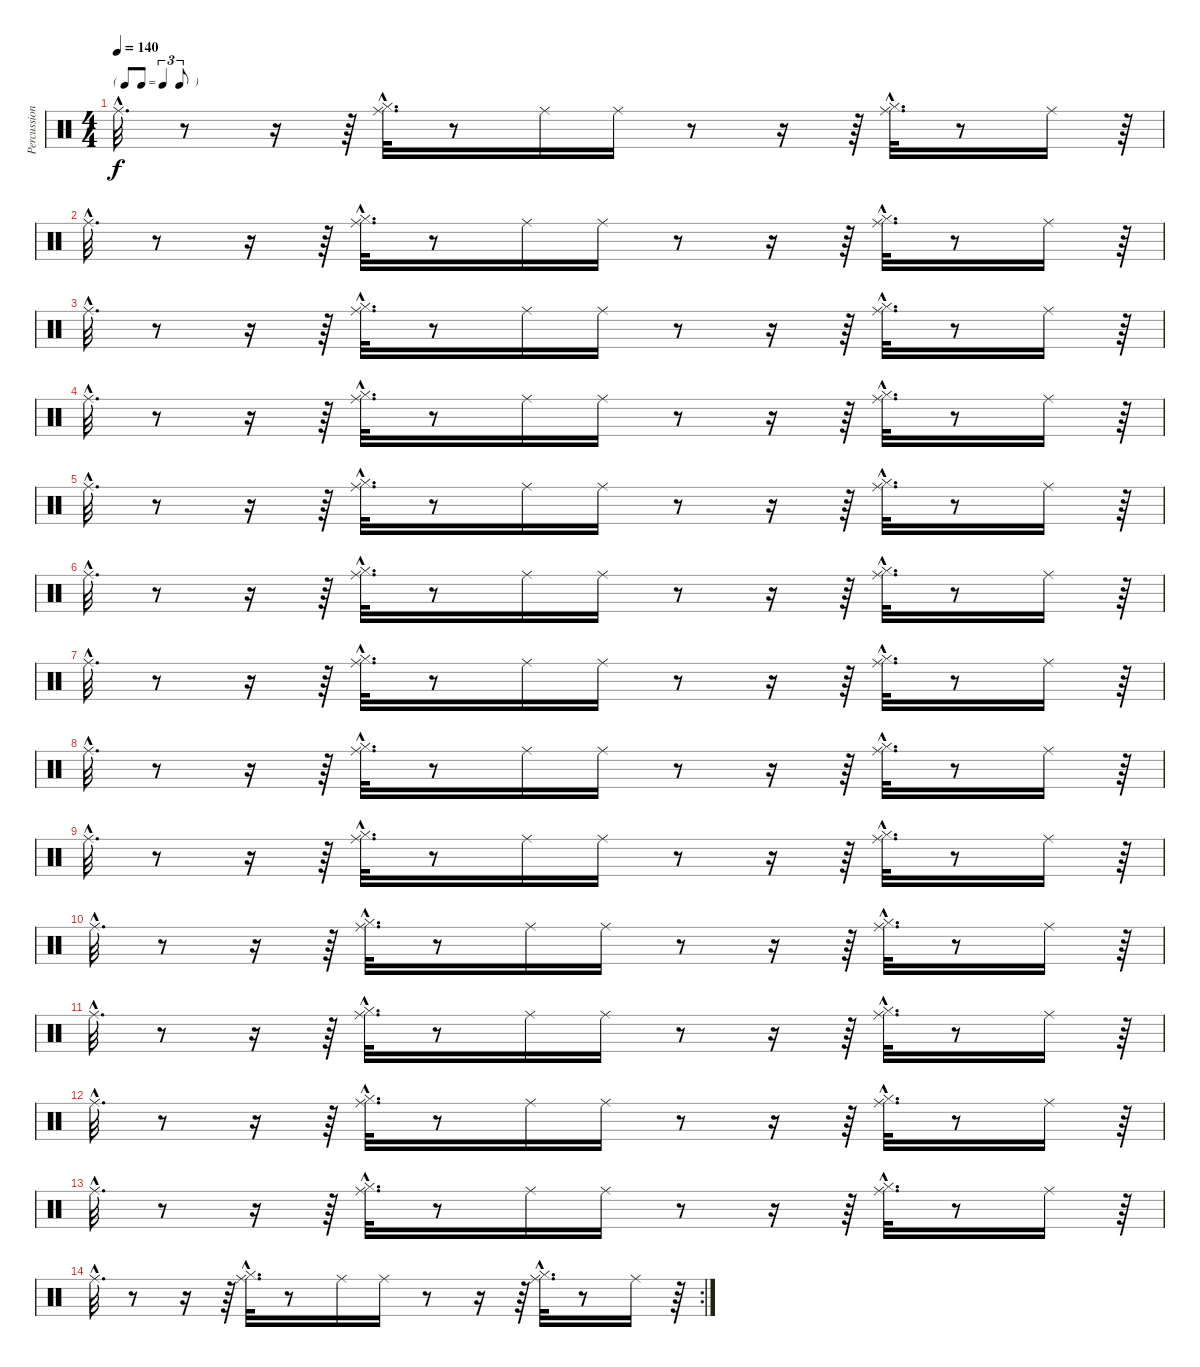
\track ("Percussions" "Percussion") {instrument percussion}
\staff {score}
\articulation defaults
\ts (4 4)
\tf triplet8th
\tempo 140
\clef neutral
\ks c "Ride (middle)"{hac}.32{d dy f}
r.8 r.16 r.64 ("Hi-Hat (closed)"{hac} "Ride (middle)"{hac}).32{d} r.8 "Ride (middle)".16 "Ride (middle)".16 r.8 r.16 r.64 ("Hi-Hat (closed)"{hac} "Ride (middle)"{hac}).32{d} r.8 "Ride (middle)".16 r.64 |
"Ride (middle)"{hac}.32{d} r.8 r.16 r.64 ("Hi-Hat (closed)"{hac} "Ride (middle)"{hac}).32{d} r.8 "Ride (middle)".16 "Ride (middle)".16 r.8 r.16 r.64 ("Hi-Hat (closed)"{hac} "Ride (middle)"{hac}).32{d} r.8 "Ride (middle)".16 r.64 |
"Ride (middle)"{hac}.32{d} r.8 r.16 r.64 ("Hi-Hat (closed)"{hac} "Ride (middle)"{hac}).32{d} r.8 "Ride (middle)".16 "Ride (middle)".16 r.8 r.16 r.64 ("Hi-Hat (closed)"{hac} "Ride (middle)"{hac}).32{d} r.8 "Ride (middle)".16 r.64 |
"Ride (middle)"{hac}.32{d} r.8 r.16 r.64 ("Hi-Hat (closed)"{hac} "Ride (middle)"{hac}).32{d} r.8 "Ride (middle)".16 "Ride (middle)".16 r.8 r.16 r.64 ("Hi-Hat (closed)"{hac} "Ride (middle)"{hac}).32{d} r.8 "Ride (middle)".16 r.64 |
"Ride (middle)"{hac}.32{d} r.8 r.16 r.64 ("Hi-Hat (closed)"{hac} "Ride (middle)"{hac}).32{d} r.8 "Ride (middle)".16 "Ride (middle)".16 r.8 r.16 r.64 ("Hi-Hat (closed)"{hac} "Ride (middle)"{hac}).32{d} r.8 "Ride (middle)".16 r.64 |
"Ride (middle)"{hac}.32{d} r.8 r.16 r.64 ("Hi-Hat (closed)"{hac} "Ride (middle)"{hac}).32{d} r.8 "Ride (middle)".16 "Ride (middle)".16 r.8 r.16 r.64 ("Hi-Hat (closed)"{hac} "Ride (middle)"{hac}).32{d} r.8 "Ride (middle)".16 r.64 |
"Ride (middle)"{hac}.32{d} r.8 r.16 r.64 ("Hi-Hat (closed)"{hac} "Ride (middle)"{hac}).32{d} r.8 "Ride (middle)".16 "Ride (middle)".16 r.8 r.16 r.64 ("Hi-Hat (closed)"{hac} "Ride (middle)"{hac}).32{d} r.8 "Ride (middle)".16 r.64 |
"Ride (middle)"{hac}.32{d} r.8 r.16 r.64 ("Hi-Hat (closed)"{hac} "Ride (middle)"{hac}).32{d} r.8 "Ride (middle)".16 "Ride (middle)".16 r.8 r.16 r.64 ("Hi-Hat (closed)"{hac} "Ride (middle)"{hac}).32{d} r.8 "Ride (middle)".16 r.64 |
"Ride (middle)"{hac}.32{d} r.8 r.16 r.64 ("Hi-Hat (closed)"{hac} "Ride (middle)"{hac}).32{d} r.8 "Ride (middle)".16 "Ride (middle)".16 r.8 r.16 r.64 ("Hi-Hat (closed)"{hac} "Ride (middle)"{hac}).32{d} r.8 "Ride (middle)".16 r.64 |
"Ride (middle)"{hac}.32{d} r.8 r.16 r.64 ("Hi-Hat (closed)"{hac} "Ride (middle)"{hac}).32{d} r.8 "Ride (middle)".16 "Ride (middle)".16 r.8 r.16 r.64 ("Hi-Hat (closed)"{hac} "Ride (middle)"{hac}).32{d} r.8 "Ride (middle)".16 r.64 |
"Ride (middle)"{hac}.32{d} r.8 r.16 r.64 ("Hi-Hat (closed)"{hac} "Ride (middle)"{hac}).32{d} r.8 "Ride (middle)".16 "Ride (middle)".16 r.8 r.16 r.64 ("Hi-Hat (closed)"{hac} "Ride (middle)"{hac}).32{d} r.8 "Ride (middle)".16 r.64 |
"Ride (middle)"{hac}.32{d} r.8 r.16 r.64 ("Hi-Hat (closed)"{hac} "Ride (middle)"{hac}).32{d} r.8 "Ride (middle)".16 "Ride (middle)".16 r.8 r.16 r.64 ("Hi-Hat (closed)"{hac} "Ride (middle)"{hac}).32{d} r.8 "Ride (middle)".16 r.64 |
"Ride (middle)"{hac}.32{d} r.8 r.16 r.64 ("Hi-Hat (closed)"{hac} "Ride (middle)"{hac}).32{d} r.8 "Ride (middle)".16 "Ride (middle)".16 r.8 r.16 r.64 ("Hi-Hat (closed)"{hac} "Ride (middle)"{hac}).32{d} r.8 "Ride (middle)".16 r.64 |
\rc 2 "Ride (middle)"{hac}.32{d}
r.8 r.16 r.64 ("Hi-Hat (closed)"{hac} "Ride (middle)"{hac}).32{d} r.8 "Ride (middle)".16 "Ride (middle)".16 r.8 r.16 r.64 ("Hi-Hat (closed)"{hac} "Ride (middle)"{hac}).32{d} r.8 "Ride (middle)".16 r.64
